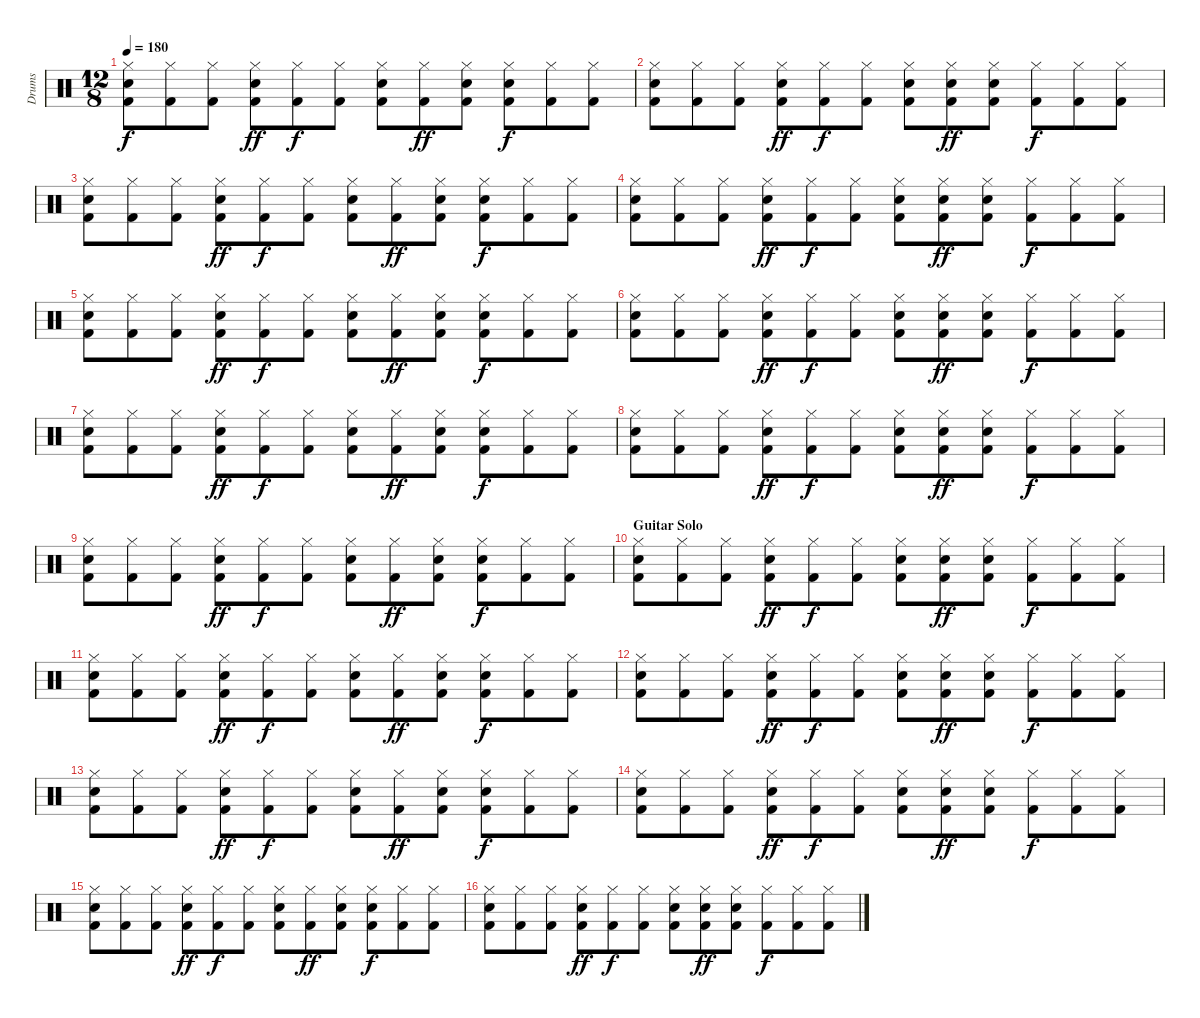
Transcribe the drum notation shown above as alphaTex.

\track ("Drums" "Drums") {instrument percussion}
\staff {score}
\articulation defaults
\ts (12 8)
\tempo 180
\clef neutral
\ks c
("Hi-Hat (closed)" "Electric Snare (hit)" "Kick (hit) 2").8{dy f} ("Hi-Hat (closed)" "Kick (hit) 2").8 ("Hi-Hat (closed)" "Kick (hit) 2").8 ("Hi-Hat (closed)" "Electric Snare (hit)" "Kick (hit) 2").8{dy ff} ("Hi-Hat (closed)" "Kick (hit) 2").8{dy f} ("Hi-Hat (closed)" "Kick (hit) 2").8 ("Hi-Hat (closed)" "Electric Snare (hit)" "Kick (hit) 2").8 ("Hi-Hat (closed)" "Kick (hit) 2").8{dy ff} ("Hi-Hat (closed)" "Electric Snare (hit)" "Kick (hit) 2").8 ("Hi-Hat (closed)" "Electric Snare (hit)" "Kick (hit) 2").8{dy f} ("Hi-Hat (closed)" "Kick (hit) 2").8 ("Hi-Hat (closed)" "Kick (hit) 2").8 |
("Hi-Hat (closed)" "Electric Snare (hit)" "Kick (hit) 2").8 ("Hi-Hat (closed)" "Kick (hit) 2").8 ("Hi-Hat (closed)" "Kick (hit) 2").8 ("Hi-Hat (closed)" "Electric Snare (hit)" "Kick (hit) 2").8{dy ff} ("Hi-Hat (closed)" "Kick (hit) 2").8{dy f} ("Hi-Hat (closed)" "Kick (hit) 2").8 ("Hi-Hat (closed)" "Electric Snare (hit)" "Kick (hit) 2").8 ("Hi-Hat (closed)" "Electric Snare (hit)" "Kick (hit) 2").8{dy ff} ("Hi-Hat (closed)" "Electric Snare (hit)" "Kick (hit) 2").8 ("Hi-Hat (closed)" "Kick (hit) 2").8{dy f} ("Hi-Hat (closed)" "Kick (hit) 2").8 ("Hi-Hat (closed)" "Kick (hit) 2").8 |
("Hi-Hat (closed)" "Electric Snare (hit)" "Kick (hit) 2").8 ("Hi-Hat (closed)" "Kick (hit) 2").8 ("Hi-Hat (closed)" "Kick (hit) 2").8 ("Hi-Hat (closed)" "Electric Snare (hit)" "Kick (hit) 2").8{dy ff} ("Hi-Hat (closed)" "Kick (hit) 2").8{dy f} ("Hi-Hat (closed)" "Kick (hit) 2").8 ("Hi-Hat (closed)" "Electric Snare (hit)" "Kick (hit) 2").8 ("Hi-Hat (closed)" "Kick (hit) 2").8{dy ff} ("Hi-Hat (closed)" "Electric Snare (hit)" "Kick (hit) 2").8 ("Hi-Hat (closed)" "Electric Snare (hit)" "Kick (hit) 2").8{dy f} ("Hi-Hat (closed)" "Kick (hit) 2").8 ("Hi-Hat (closed)" "Kick (hit) 2").8 |
("Hi-Hat (closed)" "Electric Snare (hit)" "Kick (hit) 2").8 ("Hi-Hat (closed)" "Kick (hit) 2").8 ("Hi-Hat (closed)" "Kick (hit) 2").8 ("Hi-Hat (closed)" "Electric Snare (hit)" "Kick (hit) 2").8{dy ff} ("Hi-Hat (closed)" "Kick (hit) 2").8{dy f} ("Hi-Hat (closed)" "Kick (hit) 2").8 ("Hi-Hat (closed)" "Electric Snare (hit)" "Kick (hit) 2").8 ("Hi-Hat (closed)" "Electric Snare (hit)" "Kick (hit) 2").8{dy ff} ("Hi-Hat (closed)" "Electric Snare (hit)" "Kick (hit) 2").8 ("Hi-Hat (closed)" "Kick (hit) 2").8{dy f} ("Hi-Hat (closed)" "Kick (hit) 2").8 ("Hi-Hat (closed)" "Kick (hit) 2").8 |
("Hi-Hat (closed)" "Electric Snare (hit)" "Kick (hit) 2").8 ("Hi-Hat (closed)" "Kick (hit) 2").8 ("Hi-Hat (closed)" "Kick (hit) 2").8 ("Hi-Hat (closed)" "Electric Snare (hit)" "Kick (hit) 2").8{dy ff} ("Hi-Hat (closed)" "Kick (hit) 2").8{dy f} ("Hi-Hat (closed)" "Kick (hit) 2").8 ("Hi-Hat (closed)" "Electric Snare (hit)" "Kick (hit) 2").8 ("Hi-Hat (closed)" "Kick (hit) 2").8{dy ff} ("Hi-Hat (closed)" "Electric Snare (hit)" "Kick (hit) 2").8 ("Hi-Hat (closed)" "Electric Snare (hit)" "Kick (hit) 2").8{dy f} ("Hi-Hat (closed)" "Kick (hit) 2").8 ("Hi-Hat (closed)" "Kick (hit) 2").8 |
("Hi-Hat (closed)" "Electric Snare (hit)" "Kick (hit) 2").8 ("Hi-Hat (closed)" "Kick (hit) 2").8 ("Hi-Hat (closed)" "Kick (hit) 2").8 ("Hi-Hat (closed)" "Electric Snare (hit)" "Kick (hit) 2").8{dy ff} ("Hi-Hat (closed)" "Kick (hit) 2").8{dy f} ("Hi-Hat (closed)" "Kick (hit) 2").8 ("Hi-Hat (closed)" "Electric Snare (hit)" "Kick (hit) 2").8 ("Hi-Hat (closed)" "Electric Snare (hit)" "Kick (hit) 2").8{dy ff} ("Hi-Hat (closed)" "Electric Snare (hit)" "Kick (hit) 2").8 ("Hi-Hat (closed)" "Kick (hit) 2").8{dy f} ("Hi-Hat (closed)" "Kick (hit) 2").8 ("Hi-Hat (closed)" "Kick (hit) 2").8 |
("Hi-Hat (closed)" "Electric Snare (hit)" "Kick (hit) 2").8 ("Hi-Hat (closed)" "Kick (hit) 2").8 ("Hi-Hat (closed)" "Kick (hit) 2").8 ("Hi-Hat (closed)" "Electric Snare (hit)" "Kick (hit) 2").8{dy ff} ("Hi-Hat (closed)" "Kick (hit) 2").8{dy f} ("Hi-Hat (closed)" "Kick (hit) 2").8 ("Hi-Hat (closed)" "Electric Snare (hit)" "Kick (hit) 2").8 ("Hi-Hat (closed)" "Kick (hit) 2").8{dy ff} ("Hi-Hat (closed)" "Electric Snare (hit)" "Kick (hit) 2").8 ("Hi-Hat (closed)" "Electric Snare (hit)" "Kick (hit) 2").8{dy f} ("Hi-Hat (closed)" "Kick (hit) 2").8 ("Hi-Hat (closed)" "Kick (hit) 2").8 |
("Hi-Hat (closed)" "Electric Snare (hit)" "Kick (hit) 2").8 ("Hi-Hat (closed)" "Kick (hit) 2").8 ("Hi-Hat (closed)" "Kick (hit) 2").8 ("Hi-Hat (closed)" "Electric Snare (hit)" "Kick (hit) 2").8{dy ff} ("Hi-Hat (closed)" "Kick (hit) 2").8{dy f} ("Hi-Hat (closed)" "Kick (hit) 2").8 ("Hi-Hat (closed)" "Electric Snare (hit)" "Kick (hit) 2").8 ("Hi-Hat (closed)" "Electric Snare (hit)" "Kick (hit) 2").8{dy ff} ("Hi-Hat (closed)" "Electric Snare (hit)" "Kick (hit) 2").8 ("Hi-Hat (closed)" "Kick (hit) 2").8{dy f} ("Hi-Hat (closed)" "Kick (hit) 2").8 ("Hi-Hat (closed)" "Kick (hit) 2").8 |
("Hi-Hat (closed)" "Electric Snare (hit)" "Kick (hit) 2").8 ("Hi-Hat (closed)" "Kick (hit) 2").8 ("Hi-Hat (closed)" "Kick (hit) 2").8 ("Hi-Hat (closed)" "Electric Snare (hit)" "Kick (hit) 2").8{dy ff} ("Hi-Hat (closed)" "Kick (hit) 2").8{dy f} ("Hi-Hat (closed)" "Kick (hit) 2").8 ("Hi-Hat (closed)" "Electric Snare (hit)" "Kick (hit) 2").8 ("Hi-Hat (closed)" "Kick (hit) 2").8{dy ff} ("Hi-Hat (closed)" "Electric Snare (hit)" "Kick (hit) 2").8 ("Hi-Hat (closed)" "Electric Snare (hit)" "Kick (hit) 2").8{dy f} ("Hi-Hat (closed)" "Kick (hit) 2").8 ("Hi-Hat (closed)" "Kick (hit) 2").8 |
\section ("" "Guitar Solo")
("Hi-Hat (closed)" "Electric Snare (hit)" "Kick (hit) 2").8 ("Hi-Hat (closed)" "Kick (hit) 2").8 ("Hi-Hat (closed)" "Kick (hit) 2").8 ("Hi-Hat (closed)" "Electric Snare (hit)" "Kick (hit) 2").8{dy ff} ("Hi-Hat (closed)" "Kick (hit) 2").8{dy f} ("Hi-Hat (closed)" "Kick (hit) 2").8 ("Hi-Hat (closed)" "Electric Snare (hit)" "Kick (hit) 2").8 ("Hi-Hat (closed)" "Electric Snare (hit)" "Kick (hit) 2").8{dy ff} ("Hi-Hat (closed)" "Electric Snare (hit)" "Kick (hit) 2").8 ("Hi-Hat (closed)" "Kick (hit) 2").8{dy f} ("Hi-Hat (closed)" "Kick (hit) 2").8 ("Hi-Hat (closed)" "Kick (hit) 2").8 |
("Hi-Hat (closed)" "Electric Snare (hit)" "Kick (hit) 2").8 ("Hi-Hat (closed)" "Kick (hit) 2").8 ("Hi-Hat (closed)" "Kick (hit) 2").8 ("Hi-Hat (closed)" "Electric Snare (hit)" "Kick (hit) 2").8{dy ff} ("Hi-Hat (closed)" "Kick (hit) 2").8{dy f} ("Hi-Hat (closed)" "Kick (hit) 2").8 ("Hi-Hat (closed)" "Electric Snare (hit)" "Kick (hit) 2").8 ("Hi-Hat (closed)" "Kick (hit) 2").8{dy ff} ("Hi-Hat (closed)" "Electric Snare (hit)" "Kick (hit) 2").8 ("Hi-Hat (closed)" "Electric Snare (hit)" "Kick (hit) 2").8{dy f} ("Hi-Hat (closed)" "Kick (hit) 2").8 ("Hi-Hat (closed)" "Kick (hit) 2").8 |
("Hi-Hat (closed)" "Electric Snare (hit)" "Kick (hit) 2").8 ("Hi-Hat (closed)" "Kick (hit) 2").8 ("Hi-Hat (closed)" "Kick (hit) 2").8 ("Hi-Hat (closed)" "Electric Snare (hit)" "Kick (hit) 2").8{dy ff} ("Hi-Hat (closed)" "Kick (hit) 2").8{dy f} ("Hi-Hat (closed)" "Kick (hit) 2").8 ("Hi-Hat (closed)" "Electric Snare (hit)" "Kick (hit) 2").8 ("Hi-Hat (closed)" "Electric Snare (hit)" "Kick (hit) 2").8{dy ff} ("Hi-Hat (closed)" "Electric Snare (hit)" "Kick (hit) 2").8 ("Hi-Hat (closed)" "Kick (hit) 2").8{dy f} ("Hi-Hat (closed)" "Kick (hit) 2").8 ("Hi-Hat (closed)" "Kick (hit) 2").8 |
("Hi-Hat (closed)" "Electric Snare (hit)" "Kick (hit) 2").8 ("Hi-Hat (closed)" "Kick (hit) 2").8 ("Hi-Hat (closed)" "Kick (hit) 2").8 ("Hi-Hat (closed)" "Electric Snare (hit)" "Kick (hit) 2").8{dy ff} ("Hi-Hat (closed)" "Kick (hit) 2").8{dy f} ("Hi-Hat (closed)" "Kick (hit) 2").8 ("Hi-Hat (closed)" "Electric Snare (hit)" "Kick (hit) 2").8 ("Hi-Hat (closed)" "Kick (hit) 2").8{dy ff} ("Hi-Hat (closed)" "Electric Snare (hit)" "Kick (hit) 2").8 ("Hi-Hat (closed)" "Electric Snare (hit)" "Kick (hit) 2").8{dy f} ("Hi-Hat (closed)" "Kick (hit) 2").8 ("Hi-Hat (closed)" "Kick (hit) 2").8 |
("Hi-Hat (closed)" "Electric Snare (hit)" "Kick (hit) 2").8 ("Hi-Hat (closed)" "Kick (hit) 2").8 ("Hi-Hat (closed)" "Kick (hit) 2").8 ("Hi-Hat (closed)" "Electric Snare (hit)" "Kick (hit) 2").8{dy ff} ("Hi-Hat (closed)" "Kick (hit) 2").8{dy f} ("Hi-Hat (closed)" "Kick (hit) 2").8 ("Hi-Hat (closed)" "Electric Snare (hit)" "Kick (hit) 2").8 ("Hi-Hat (closed)" "Electric Snare (hit)" "Kick (hit) 2").8{dy ff} ("Hi-Hat (closed)" "Electric Snare (hit)" "Kick (hit) 2").8 ("Hi-Hat (closed)" "Kick (hit) 2").8{dy f} ("Hi-Hat (closed)" "Kick (hit) 2").8 ("Hi-Hat (closed)" "Kick (hit) 2").8 |
("Hi-Hat (closed)" "Electric Snare (hit)" "Kick (hit) 2").8 ("Hi-Hat (closed)" "Kick (hit) 2").8 ("Hi-Hat (closed)" "Kick (hit) 2").8 ("Hi-Hat (closed)" "Electric Snare (hit)" "Kick (hit) 2").8{dy ff} ("Hi-Hat (closed)" "Kick (hit) 2").8{dy f} ("Hi-Hat (closed)" "Kick (hit) 2").8 ("Hi-Hat (closed)" "Electric Snare (hit)" "Kick (hit) 2").8 ("Hi-Hat (closed)" "Kick (hit) 2").8{dy ff} ("Hi-Hat (closed)" "Electric Snare (hit)" "Kick (hit) 2").8 ("Hi-Hat (closed)" "Electric Snare (hit)" "Kick (hit) 2").8{dy f} ("Hi-Hat (closed)" "Kick (hit) 2").8 ("Hi-Hat (closed)" "Kick (hit) 2").8 |
("Hi-Hat (closed)" "Electric Snare (hit)" "Kick (hit) 2").8 ("Hi-Hat (closed)" "Kick (hit) 2").8 ("Hi-Hat (closed)" "Kick (hit) 2").8 ("Hi-Hat (closed)" "Electric Snare (hit)" "Kick (hit) 2").8{dy ff} ("Hi-Hat (closed)" "Kick (hit) 2").8{dy f} ("Hi-Hat (closed)" "Kick (hit) 2").8 ("Hi-Hat (closed)" "Electric Snare (hit)" "Kick (hit) 2").8 ("Hi-Hat (closed)" "Electric Snare (hit)" "Kick (hit) 2").8{dy ff} ("Hi-Hat (closed)" "Electric Snare (hit)" "Kick (hit) 2").8 ("Hi-Hat (closed)" "Kick (hit) 2").8{dy f} ("Hi-Hat (closed)" "Kick (hit) 2").8 ("Hi-Hat (closed)" "Kick (hit) 2").8
